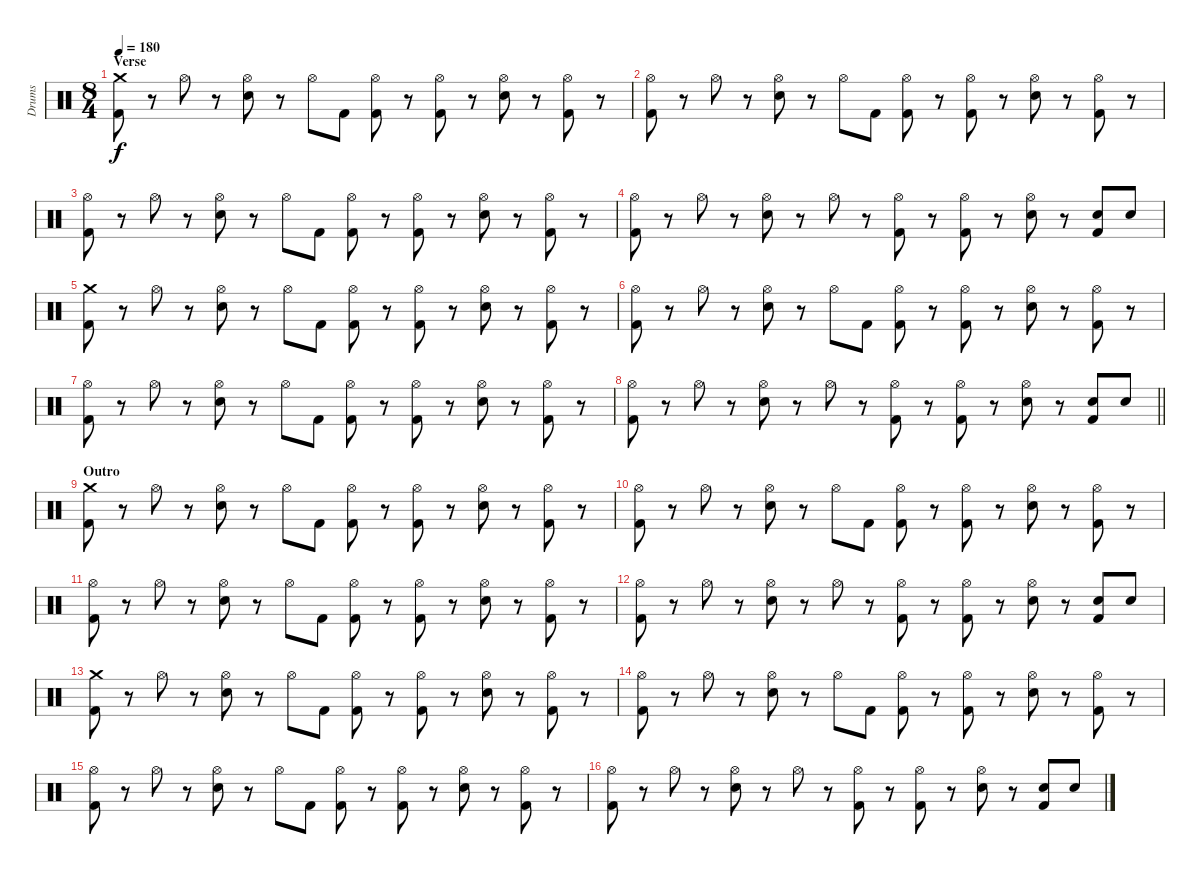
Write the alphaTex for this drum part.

\track ("Drums" "Drums") {instrument percussion}
\staff {score}
\articulation defaults
\ts (8 4)
\section ("" "Verse")
\tempo 180
\clef neutral
\ks c
("Crash medium (hit)" "Kick (hit) 2").8{dy f} r.8 "Hi-Hat (open)".8 r.8 ("Hi-Hat (open)" "Snare (hit) 2").8 r.8 "Hi-Hat (open)".8 "Kick (hit) 2".8 ("Hi-Hat (open)" "Kick (hit) 2").8 r.8 ("Hi-Hat (open)" "Kick (hit) 2").8 r.8 ("Hi-Hat (open)" "Snare (hit) 2").8 r.8 ("Hi-Hat (open)" "Kick (hit) 2").8 r.8 |
("Hi-Hat (open)" "Kick (hit) 2").8 r.8 "Hi-Hat (open)".8 r.8 ("Hi-Hat (open)" "Snare (hit) 2").8 r.8 "Hi-Hat (open)".8 "Kick (hit) 2".8 ("Hi-Hat (open)" "Kick (hit) 2").8 r.8 ("Hi-Hat (open)" "Kick (hit) 2").8 r.8 ("Hi-Hat (open)" "Snare (hit) 2").8 r.8 ("Hi-Hat (open)" "Kick (hit) 2").8 r.8 |
("Hi-Hat (open)" "Kick (hit) 2").8 r.8 "Hi-Hat (open)".8 r.8 ("Hi-Hat (open)" "Snare (hit) 2").8 r.8 "Hi-Hat (open)".8 "Kick (hit) 2".8 ("Hi-Hat (open)" "Kick (hit) 2").8 r.8 ("Hi-Hat (open)" "Kick (hit) 2").8 r.8 ("Hi-Hat (open)" "Snare (hit) 2").8 r.8 ("Hi-Hat (open)" "Kick (hit) 2").8 r.8 |
("Hi-Hat (open)" "Kick (hit) 2").8 r.8 "Hi-Hat (open)".8 r.8 ("Hi-Hat (open)" "Snare (hit) 2").8 r.8 "Hi-Hat (open)".8 r.8 ("Hi-Hat (open)" "Kick (hit) 2").8 r.8 ("Hi-Hat (open)" "Kick (hit) 2").8 r.8 ("Hi-Hat (open)" "Snare (hit) 2").8 r.8 ("Snare (hit) 2" "Kick (hit) 2").8 "Snare (hit) 2".8 |
("Crash medium (hit)" "Kick (hit) 2").8 r.8 "Hi-Hat (open)".8 r.8 ("Hi-Hat (open)" "Snare (hit) 2").8 r.8 "Hi-Hat (open)".8 "Kick (hit) 2".8 ("Hi-Hat (open)" "Kick (hit) 2").8 r.8 ("Hi-Hat (open)" "Kick (hit) 2").8 r.8 ("Hi-Hat (open)" "Snare (hit) 2").8 r.8 ("Hi-Hat (open)" "Kick (hit) 2").8 r.8 |
("Hi-Hat (open)" "Kick (hit) 2").8 r.8 "Hi-Hat (open)".8 r.8 ("Hi-Hat (open)" "Snare (hit) 2").8 r.8 "Hi-Hat (open)".8 "Kick (hit) 2".8 ("Hi-Hat (open)" "Kick (hit) 2").8 r.8 ("Hi-Hat (open)" "Kick (hit) 2").8 r.8 ("Hi-Hat (open)" "Snare (hit) 2").8 r.8 ("Hi-Hat (open)" "Kick (hit) 2").8 r.8 |
("Hi-Hat (open)" "Kick (hit) 2").8 r.8 "Hi-Hat (open)".8 r.8 ("Hi-Hat (open)" "Snare (hit) 2").8 r.8 "Hi-Hat (open)".8 "Kick (hit) 2".8 ("Hi-Hat (open)" "Kick (hit) 2").8 r.8 ("Hi-Hat (open)" "Kick (hit) 2").8 r.8 ("Hi-Hat (open)" "Snare (hit) 2").8 r.8 ("Hi-Hat (open)" "Kick (hit) 2").8 r.8 |
\barLineRight lightlight
("Hi-Hat (open)" "Kick (hit) 2").8 r.8 "Hi-Hat (open)".8 r.8 ("Hi-Hat (open)" "Snare (hit) 2").8 r.8 "Hi-Hat (open)".8 r.8 ("Hi-Hat (open)" "Kick (hit) 2").8 r.8 ("Hi-Hat (open)" "Kick (hit) 2").8 r.8 ("Hi-Hat (open)" "Snare (hit) 2").8 r.8 ("Snare (hit) 2" "Kick (hit) 2").8 "Snare (hit) 2".8 |
\section ("" "Outro")
("Crash medium (hit)" "Kick (hit) 2").8 r.8 "Hi-Hat (open)".8 r.8 ("Hi-Hat (open)" "Snare (hit) 2").8 r.8 "Hi-Hat (open)".8 "Kick (hit) 2".8 ("Hi-Hat (open)" "Kick (hit) 2").8 r.8 ("Hi-Hat (open)" "Kick (hit) 2").8 r.8 ("Hi-Hat (open)" "Snare (hit) 2").8 r.8 ("Hi-Hat (open)" "Kick (hit) 2").8 r.8 |
("Hi-Hat (open)" "Kick (hit) 2").8 r.8 "Hi-Hat (open)".8 r.8 ("Hi-Hat (open)" "Snare (hit) 2").8 r.8 "Hi-Hat (open)".8 "Kick (hit) 2".8 ("Hi-Hat (open)" "Kick (hit) 2").8 r.8 ("Hi-Hat (open)" "Kick (hit) 2").8 r.8 ("Hi-Hat (open)" "Snare (hit) 2").8 r.8 ("Hi-Hat (open)" "Kick (hit) 2").8 r.8 |
("Hi-Hat (open)" "Kick (hit) 2").8{volume 9} r.8 "Hi-Hat (open)".8 r.8 ("Hi-Hat (open)" "Snare (hit) 2").8 r.8 "Hi-Hat (open)".8 "Kick (hit) 2".8 ("Hi-Hat (open)" "Kick (hit) 2").8{volume 8} r.8 ("Hi-Hat (open)" "Kick (hit) 2").8 r.8 ("Hi-Hat (open)" "Snare (hit) 2").8 r.8 ("Hi-Hat (open)" "Kick (hit) 2").8 r.8 |
("Hi-Hat (open)" "Kick (hit) 2").8{volume 7} r.8 "Hi-Hat (open)".8 r.8 ("Hi-Hat (open)" "Snare (hit) 2").8 r.8 "Hi-Hat (open)".8 r.8 ("Hi-Hat (open)" "Kick (hit) 2").8{volume 6} r.8 ("Hi-Hat (open)" "Kick (hit) 2").8 r.8 ("Hi-Hat (open)" "Snare (hit) 2").8 r.8 ("Snare (hit) 2" "Kick (hit) 2").8 "Snare (hit) 2".8 |
("Crash medium (hit)" "Kick (hit) 2").8{volume 5} r.8 "Hi-Hat (open)".8 r.8 ("Hi-Hat (open)" "Snare (hit) 2").8 r.8 "Hi-Hat (open)".8 "Kick (hit) 2".8 ("Hi-Hat (open)" "Kick (hit) 2").8{volume 4} r.8 ("Hi-Hat (open)" "Kick (hit) 2").8 r.8 ("Hi-Hat (open)" "Snare (hit) 2").8 r.8 ("Hi-Hat (open)" "Kick (hit) 2").8 r.8 |
("Hi-Hat (open)" "Kick (hit) 2").8{volume 3} r.8 "Hi-Hat (open)".8 r.8 ("Hi-Hat (open)" "Snare (hit) 2").8 r.8 "Hi-Hat (open)".8 "Kick (hit) 2".8 ("Hi-Hat (open)" "Kick (hit) 2").8{volume 2} r.8 ("Hi-Hat (open)" "Kick (hit) 2").8 r.8 ("Hi-Hat (open)" "Snare (hit) 2").8 r.8 ("Hi-Hat (open)" "Kick (hit) 2").8 r.8 |
("Hi-Hat (open)" "Kick (hit) 2").8{volume 1} r.8 "Hi-Hat (open)".8 r.8 ("Hi-Hat (open)" "Snare (hit) 2").8 r.8 "Hi-Hat (open)".8 "Kick (hit) 2".8 ("Hi-Hat (open)" "Kick (hit) 2").8 r.8 ("Hi-Hat (open)" "Kick (hit) 2").8 r.8 ("Hi-Hat (open)" "Snare (hit) 2").8 r.8 ("Hi-Hat (open)" "Kick (hit) 2").8 r.8 |
("Hi-Hat (open)" "Kick (hit) 2").8{volume 0} r.8 "Hi-Hat (open)".8 r.8 ("Hi-Hat (open)" "Snare (hit) 2").8 r.8 "Hi-Hat (open)".8 r.8 ("Hi-Hat (open)" "Kick (hit) 2").8 r.8 ("Hi-Hat (open)" "Kick (hit) 2").8 r.8 ("Hi-Hat (open)" "Snare (hit) 2").8 r.8 ("Snare (hit) 2" "Kick (hit) 2").8 "Snare (hit) 2".8
